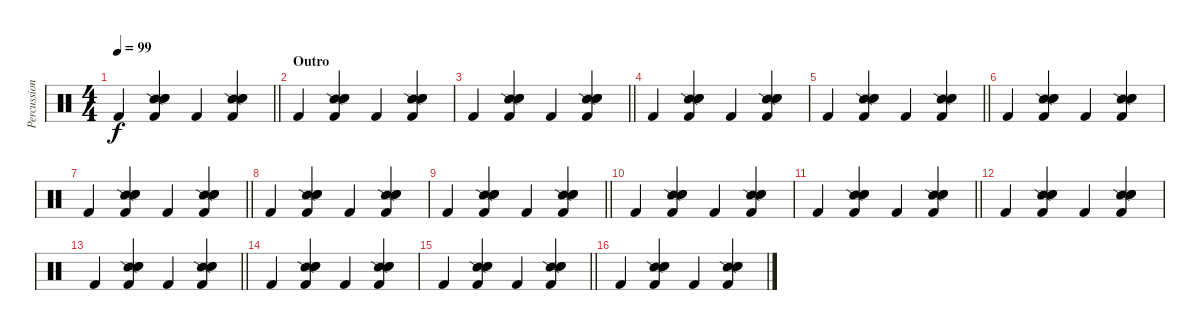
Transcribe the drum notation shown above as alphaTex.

\track ("Percussion" "Percussion") {instrument percussion}
\staff {score}
\articulation defaults
\ts (4 4)
\tempo 99
\clef neutral
\barLineRight lightlight
\ks c "Kick (hit) 2".4{dy f}
("Snare (side stick) 2" "Hand Clap (hit)" "Hand Clap (hit)" "Kick (hit) 2").4 "Kick (hit) 2".4 ("Snare (side stick) 2" "Hand Clap (hit)" "Hand Clap (hit)" "Kick (hit) 2").4 |
\section ("" "Outro")
"Kick (hit) 2".4 ("Snare (side stick) 2" "Hand Clap (hit)" "Hand Clap (hit)" "Kick (hit) 2").4 "Kick (hit) 2".4 ("Snare (side stick) 2" "Hand Clap (hit)" "Hand Clap (hit)" "Kick (hit) 2").4 |
\barLineRight lightlight "Kick (hit) 2".4
("Snare (side stick) 2" "Hand Clap (hit)" "Hand Clap (hit)" "Kick (hit) 2").4 "Kick (hit) 2".4 ("Snare (side stick) 2" "Hand Clap (hit)" "Hand Clap (hit)" "Kick (hit) 2").4 |
"Kick (hit) 2".4 ("Snare (side stick) 2" "Hand Clap (hit)" "Hand Clap (hit)" "Kick (hit) 2").4 "Kick (hit) 2".4 ("Snare (side stick) 2" "Hand Clap (hit)" "Hand Clap (hit)" "Kick (hit) 2").4 |
\barLineRight lightlight "Kick (hit) 2".4
("Snare (side stick) 2" "Hand Clap (hit)" "Hand Clap (hit)" "Kick (hit) 2").4 "Kick (hit) 2".4 ("Snare (side stick) 2" "Hand Clap (hit)" "Hand Clap (hit)" "Kick (hit) 2").4 |
"Kick (hit) 2".4 ("Snare (side stick) 2" "Hand Clap (hit)" "Hand Clap (hit)" "Kick (hit) 2").4 "Kick (hit) 2".4 ("Snare (side stick) 2" "Hand Clap (hit)" "Hand Clap (hit)" "Kick (hit) 2").4 |
\barLineRight lightlight "Kick (hit) 2".4
("Snare (side stick) 2" "Hand Clap (hit)" "Hand Clap (hit)" "Kick (hit) 2").4 "Kick (hit) 2".4 ("Snare (side stick) 2" "Hand Clap (hit)" "Hand Clap (hit)" "Kick (hit) 2").4 |
"Kick (hit) 2".4 ("Snare (side stick) 2" "Hand Clap (hit)" "Hand Clap (hit)" "Kick (hit) 2").4 "Kick (hit) 2".4 ("Snare (side stick) 2" "Hand Clap (hit)" "Hand Clap (hit)" "Kick (hit) 2").4 |
\barLineRight lightlight "Kick (hit) 2".4
("Snare (side stick) 2" "Hand Clap (hit)" "Hand Clap (hit)" "Kick (hit) 2").4 "Kick (hit) 2".4 ("Snare (side stick) 2" "Hand Clap (hit)" "Hand Clap (hit)" "Kick (hit) 2").4 |
"Kick (hit) 2".4 ("Snare (side stick) 2" "Hand Clap (hit)" "Hand Clap (hit)" "Kick (hit) 2").4 "Kick (hit) 2".4 ("Snare (side stick) 2" "Hand Clap (hit)" "Hand Clap (hit)" "Kick (hit) 2").4 |
\barLineRight lightlight "Kick (hit) 2".4
("Snare (side stick) 2" "Hand Clap (hit)" "Hand Clap (hit)" "Kick (hit) 2").4 "Kick (hit) 2".4 ("Snare (side stick) 2" "Hand Clap (hit)" "Hand Clap (hit)" "Kick (hit) 2").4 |
"Kick (hit) 2".4 ("Snare (side stick) 2" "Hand Clap (hit)" "Hand Clap (hit)" "Kick (hit) 2").4 "Kick (hit) 2".4 ("Snare (side stick) 2" "Hand Clap (hit)" "Hand Clap (hit)" "Kick (hit) 2").4 |
\barLineRight lightlight "Kick (hit) 2".4
("Snare (side stick) 2" "Hand Clap (hit)" "Hand Clap (hit)" "Kick (hit) 2").4 "Kick (hit) 2".4 ("Snare (side stick) 2" "Hand Clap (hit)" "Hand Clap (hit)" "Kick (hit) 2").4 |
"Kick (hit) 2".4 ("Snare (side stick) 2" "Hand Clap (hit)" "Hand Clap (hit)" "Kick (hit) 2").4 "Kick (hit) 2".4 ("Snare (side stick) 2" "Hand Clap (hit)" "Hand Clap (hit)" "Kick (hit) 2").4 |
\barLineRight lightlight "Kick (hit) 2".4
("Snare (side stick) 2" "Hand Clap (hit)" "Hand Clap (hit)" "Kick (hit) 2").4 "Kick (hit) 2".4 ("Snare (side stick) 2" "Hand Clap (hit)" "Hand Clap (hit)" "Kick (hit) 2").4 |
"Kick (hit) 2".4 ("Snare (side stick) 2" "Hand Clap (hit)" "Hand Clap (hit)" "Kick (hit) 2").4 "Kick (hit) 2".4 ("Snare (side stick) 2" "Hand Clap (hit)" "Hand Clap (hit)" "Kick (hit) 2").4
